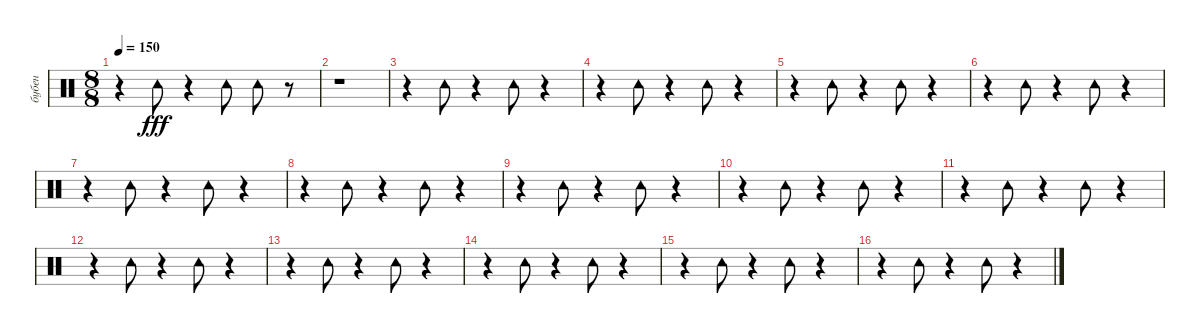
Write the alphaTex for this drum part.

\track ("бубен" "бубен") {instrument percussion}
\staff {score}
\articulation defaults
\ts (8 8)
\tempo 150
\clef neutral
\ks c
r.4{dy fff} "Tambourine (hit)".8 r.4 "Tambourine (hit)".8 "Tambourine (hit)".8 r.8 |
r.1 |
r.4 "Tambourine (hit)".8 r.4 "Tambourine (hit)".8 r.4 |
r.4 "Tambourine (hit)".8 r.4 "Tambourine (hit)".8 r.4 |
r.4 "Tambourine (hit)".8 r.4 "Tambourine (hit)".8 r.4 |
r.4 "Tambourine (hit)".8 r.4 "Tambourine (hit)".8 r.4 |
r.4 "Tambourine (hit)".8 r.4 "Tambourine (hit)".8 r.4 |
r.4 "Tambourine (hit)".8 r.4 "Tambourine (hit)".8 r.4 |
r.4 "Tambourine (hit)".8 r.4 "Tambourine (hit)".8 r.4 |
r.4 "Tambourine (hit)".8 r.4 "Tambourine (hit)".8 r.4 |
r.4 "Tambourine (hit)".8 r.4 "Tambourine (hit)".8 r.4 |
r.4 "Tambourine (hit)".8 r.4 "Tambourine (hit)".8 r.4 |
r.4 "Tambourine (hit)".8 r.4 "Tambourine (hit)".8 r.4 |
r.4 "Tambourine (hit)".8 r.4 "Tambourine (hit)".8 r.4 |
r.4 "Tambourine (hit)".8 r.4 "Tambourine (hit)".8 r.4 |
r.4 "Tambourine (hit)".8 r.4 "Tambourine (hit)".8 r.4
